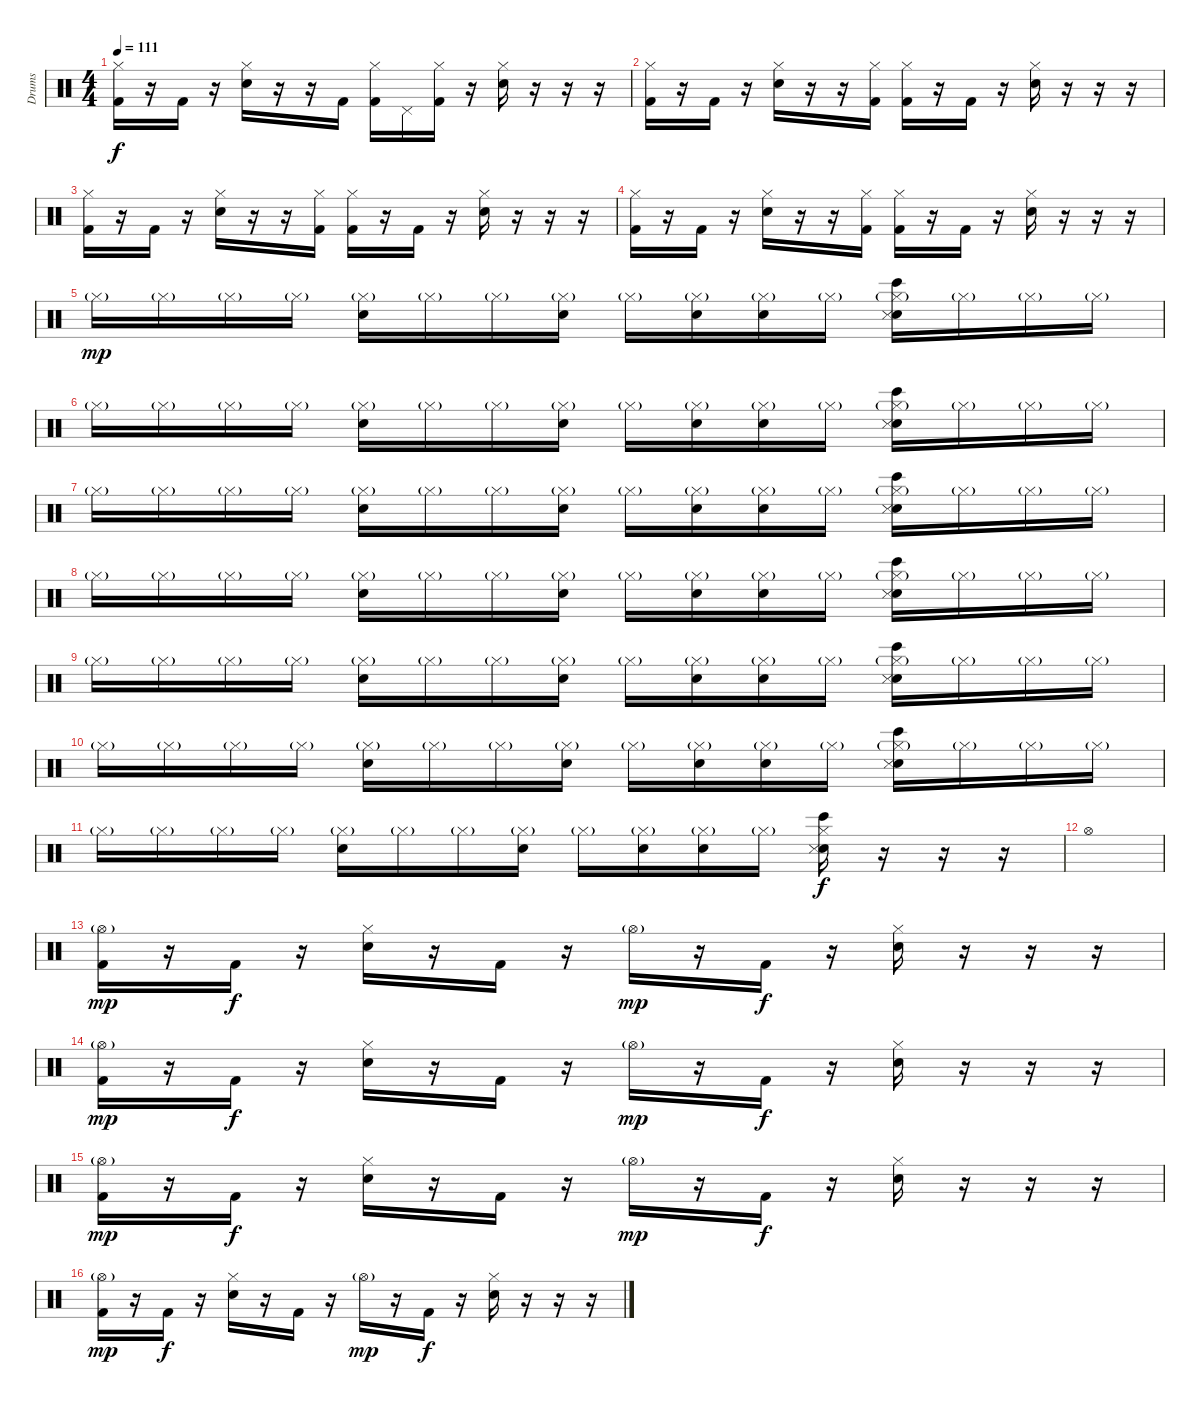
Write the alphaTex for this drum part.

\track ("Drums" "Drums") {instrument percussion}
\staff {score}
\articulation defaults
\ts (4 4)
\tempo 111
\clef neutral
\ks c
("Kick (hit) 2" "Hi-Hat (closed)").16{dy f} r.16 "Kick (hit) 2".16 r.16 ("Snare (hit) 2" "Hi-Hat (closed)").16 r.16 r.16 "Kick (hit) 2".16 ("Kick (hit) 2" "Hi-Hat (closed)").16 "Pedal Hi-Hat (hit)".16 ("Kick (hit) 2" "Hi-Hat (closed)").16 r.16 ("Snare (hit) 2" "Hi-Hat (closed)").16 r.16 r.16 r.16 |
("Kick (hit) 2" "Hi-Hat (closed)").16 r.16 "Kick (hit) 2".16 r.16 ("Snare (hit) 2" "Hi-Hat (closed)").16 r.16 r.16 ("Kick (hit) 2" "Hi-Hat (closed)").16 ("Kick (hit) 2" "Hi-Hat (closed)").16 r.16 "Kick (hit) 2".16 r.16 ("Snare (hit) 2" "Hi-Hat (closed)").16 r.16 r.16 r.16 |
("Kick (hit) 2" "Hi-Hat (closed)").16 r.16 "Kick (hit) 2".16 r.16 ("Snare (hit) 2" "Hi-Hat (closed)").16 r.16 r.16 ("Kick (hit) 2" "Hi-Hat (closed)").16 ("Kick (hit) 2" "Hi-Hat (closed)").16 r.16 "Kick (hit) 2".16 r.16 ("Snare (hit) 2" "Hi-Hat (closed)").16 r.16 r.16 r.16 |
("Kick (hit) 2" "Hi-Hat (closed)").16 r.16 "Kick (hit) 2".16 r.16 ("Snare (hit) 2" "Hi-Hat (closed)").16 r.16 r.16 ("Kick (hit) 2" "Hi-Hat (closed)").16 ("Kick (hit) 2" "Hi-Hat (closed)").16 r.16 "Kick (hit) 2".16 r.16 ("Snare (hit) 2" "Hi-Hat (closed)").16 r.16 r.16 r.16 |
"Hi-Hat (closed)"{g}.16{dy mp} "Hi-Hat (closed)"{g}.16 "Hi-Hat (closed)"{g}.16 "Hi-Hat (closed)"{g}.16 ("Snare (hit) 2" "Hi-Hat (closed)"{g}).16 "Hi-Hat (closed)"{g}.16 "Hi-Hat (closed)"{g}.16 ("Snare (hit) 2" "Hi-Hat (closed)"{g}).16 "Hi-Hat (closed)"{g}.16 ("Snare (hit) 2" "Hi-Hat (closed)"{g}).16 ("Snare (hit) 2" "Hi-Hat (closed)"{g}).16 "Hi-Hat (closed)"{g}.16 ("Bongo High (hit)" "Snare (hit) 2" "Snare (side stick) 3" "Hi-Hat (closed)"{g}).16 "Hi-Hat (closed)"{g}.16 "Hi-Hat (closed)"{g}.16 "Hi-Hat (closed)"{g}.16 |
"Hi-Hat (closed)"{g}.16 "Hi-Hat (closed)"{g}.16 "Hi-Hat (closed)"{g}.16 "Hi-Hat (closed)"{g}.16 ("Snare (hit) 2" "Hi-Hat (closed)"{g}).16 "Hi-Hat (closed)"{g}.16 "Hi-Hat (closed)"{g}.16 ("Snare (hit) 2" "Hi-Hat (closed)"{g}).16 "Hi-Hat (closed)"{g}.16 ("Snare (hit) 2" "Hi-Hat (closed)"{g}).16 ("Snare (hit) 2" "Hi-Hat (closed)"{g}).16 "Hi-Hat (closed)"{g}.16 ("Bongo High (hit)" "Snare (hit) 2" "Snare (side stick) 3" "Hi-Hat (closed)"{g}).16 "Hi-Hat (closed)"{g}.16 "Hi-Hat (closed)"{g}.16 "Hi-Hat (closed)"{g}.16 |
"Hi-Hat (closed)"{g}.16 "Hi-Hat (closed)"{g}.16 "Hi-Hat (closed)"{g}.16 "Hi-Hat (closed)"{g}.16 ("Snare (hit) 2" "Hi-Hat (closed)"{g}).16 "Hi-Hat (closed)"{g}.16 "Hi-Hat (closed)"{g}.16 ("Snare (hit) 2" "Hi-Hat (closed)"{g}).16 "Hi-Hat (closed)"{g}.16 ("Snare (hit) 2" "Hi-Hat (closed)"{g}).16 ("Snare (hit) 2" "Hi-Hat (closed)"{g}).16 "Hi-Hat (closed)"{g}.16 ("Bongo High (hit)" "Snare (hit) 2" "Snare (side stick) 3" "Hi-Hat (closed)"{g}).16 "Hi-Hat (closed)"{g}.16 "Hi-Hat (closed)"{g}.16 "Hi-Hat (closed)"{g}.16 |
"Hi-Hat (closed)"{g}.16 "Hi-Hat (closed)"{g}.16 "Hi-Hat (closed)"{g}.16 "Hi-Hat (closed)"{g}.16 ("Snare (hit) 2" "Hi-Hat (closed)"{g}).16 "Hi-Hat (closed)"{g}.16 "Hi-Hat (closed)"{g}.16 ("Snare (hit) 2" "Hi-Hat (closed)"{g}).16 "Hi-Hat (closed)"{g}.16 ("Snare (hit) 2" "Hi-Hat (closed)"{g}).16 ("Snare (hit) 2" "Hi-Hat (closed)"{g}).16 "Hi-Hat (closed)"{g}.16 ("Bongo High (hit)" "Snare (hit) 2" "Snare (side stick) 3" "Hi-Hat (closed)"{g}).16 "Hi-Hat (closed)"{g}.16 "Hi-Hat (closed)"{g}.16 "Hi-Hat (closed)"{g}.16 |
"Hi-Hat (closed)"{g}.16 "Hi-Hat (closed)"{g}.16 "Hi-Hat (closed)"{g}.16 "Hi-Hat (closed)"{g}.16 ("Snare (hit) 2" "Hi-Hat (closed)"{g}).16 "Hi-Hat (closed)"{g}.16 "Hi-Hat (closed)"{g}.16 ("Snare (hit) 2" "Hi-Hat (closed)"{g}).16 "Hi-Hat (closed)"{g}.16 ("Snare (hit) 2" "Hi-Hat (closed)"{g}).16 ("Snare (hit) 2" "Hi-Hat (closed)"{g}).16 "Hi-Hat (closed)"{g}.16 ("Bongo High (hit)" "Snare (hit) 2" "Snare (side stick) 3" "Hi-Hat (closed)"{g}).16 "Hi-Hat (closed)"{g}.16 "Hi-Hat (closed)"{g}.16 "Hi-Hat (closed)"{g}.16 |
"Hi-Hat (closed)"{g}.16 "Hi-Hat (closed)"{g}.16 "Hi-Hat (closed)"{g}.16 "Hi-Hat (closed)"{g}.16 ("Snare (hit) 2" "Hi-Hat (closed)"{g}).16 "Hi-Hat (closed)"{g}.16 "Hi-Hat (closed)"{g}.16 ("Snare (hit) 2" "Hi-Hat (closed)"{g}).16 "Hi-Hat (closed)"{g}.16 ("Snare (hit) 2" "Hi-Hat (closed)"{g}).16 ("Snare (hit) 2" "Hi-Hat (closed)"{g}).16 "Hi-Hat (closed)"{g}.16 ("Bongo High (hit)" "Snare (hit) 2" "Snare (side stick) 3" "Hi-Hat (closed)"{g}).16 "Hi-Hat (closed)"{g}.16 "Hi-Hat (closed)"{g}.16 "Hi-Hat (closed)"{g}.16 |
"Hi-Hat (closed)"{g}.16 "Hi-Hat (closed)"{g}.16 "Hi-Hat (closed)"{g}.16 "Hi-Hat (closed)"{g}.16 ("Snare (hit) 2" "Hi-Hat (closed)"{g}).16 "Hi-Hat (closed)"{g}.16 "Hi-Hat (closed)"{g}.16 ("Snare (hit) 2" "Hi-Hat (closed)"{g}).16 "Hi-Hat (closed)"{g}.16 ("Snare (hit) 2" "Hi-Hat (closed)"{g}).16 ("Snare (hit) 2" "Hi-Hat (closed)"{g}).16 "Hi-Hat (closed)"{g}.16 ("Bongo High (hit)" "Snare (hit) 2" "Snare (side stick) 3" "Hi-Hat (closed)").16{dy f} r.16 r.16 r.16 |
"Hi-Hat (open)".1 |
("Hi-Hat (open)"{g} "Kick (hit) 2").16{dy mp} r.16 "Kick (hit) 2".16{dy f} r.16 ("Hi-Hat (closed)" "Snare (hit) 2").16 r.16 "Kick (hit) 2".16 r.16 "Hi-Hat (open)"{g}.16{dy mp} r.16 "Kick (hit) 2".16{dy f} r.16 ("Hi-Hat (closed)" "Snare (hit) 2").16 r.16 r.16 r.16 |
("Hi-Hat (open)"{g} "Kick (hit) 2").16{dy mp} r.16 "Kick (hit) 2".16{dy f} r.16 ("Hi-Hat (closed)" "Snare (hit) 2").16 r.16 "Kick (hit) 2".16 r.16 "Hi-Hat (open)"{g}.16{dy mp} r.16 "Kick (hit) 2".16{dy f} r.16 ("Hi-Hat (closed)" "Snare (hit) 2").16 r.16 r.16 r.16 |
("Hi-Hat (open)"{g} "Kick (hit) 2").16{dy mp} r.16 "Kick (hit) 2".16{dy f} r.16 ("Hi-Hat (closed)" "Snare (hit) 2").16 r.16 "Kick (hit) 2".16 r.16 "Hi-Hat (open)"{g}.16{dy mp} r.16 "Kick (hit) 2".16{dy f} r.16 ("Hi-Hat (closed)" "Snare (hit) 2").16 r.16 r.16 r.16 |
("Hi-Hat (open)"{g} "Kick (hit) 2").16{dy mp} r.16 "Kick (hit) 2".16{dy f} r.16 ("Hi-Hat (closed)" "Snare (hit) 2").16 r.16 "Kick (hit) 2".16 r.16 "Hi-Hat (open)"{g}.16{dy mp} r.16 "Kick (hit) 2".16{dy f} r.16 ("Hi-Hat (closed)" "Snare (hit) 2").16 r.16 r.16 r.16
